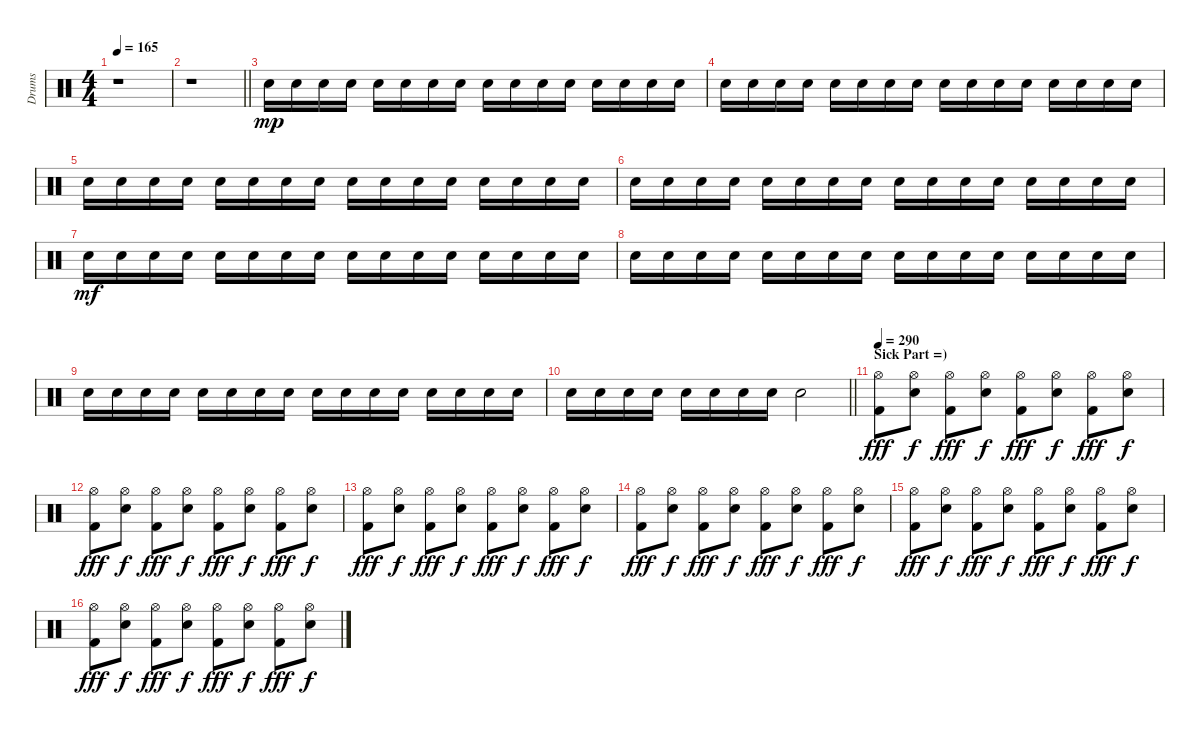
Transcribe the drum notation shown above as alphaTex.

\track ("Drums" "Drums") {instrument percussion}
\staff {score}
\articulation defaults
\ts (4 4)
\tempo 165
\clef neutral
\ks c
r.1{dy f} |
\barLineRight lightlight
r.1 |
"Snare (hit) 2".16{dy mp} "Snare (hit) 2".16 "Snare (hit) 2".16 "Snare (hit) 2".16 "Snare (hit) 2".16 "Snare (hit) 2".16 "Snare (hit) 2".16 "Snare (hit) 2".16 "Snare (hit) 2".16 "Snare (hit) 2".16 "Snare (hit) 2".16 "Snare (hit) 2".16 "Snare (hit) 2".16 "Snare (hit) 2".16 "Snare (hit) 2".16 "Snare (hit) 2".16 |
"Snare (hit) 2".16 "Snare (hit) 2".16 "Snare (hit) 2".16 "Snare (hit) 2".16 "Snare (hit) 2".16 "Snare (hit) 2".16 "Snare (hit) 2".16 "Snare (hit) 2".16 "Snare (hit) 2".16 "Snare (hit) 2".16 "Snare (hit) 2".16 "Snare (hit) 2".16 "Snare (hit) 2".16 "Snare (hit) 2".16 "Snare (hit) 2".16 "Snare (hit) 2".16 |
"Snare (hit) 2".16 "Snare (hit) 2".16 "Snare (hit) 2".16 "Snare (hit) 2".16 "Snare (hit) 2".16 "Snare (hit) 2".16 "Snare (hit) 2".16 "Snare (hit) 2".16 "Snare (hit) 2".16 "Snare (hit) 2".16 "Snare (hit) 2".16 "Snare (hit) 2".16 "Snare (hit) 2".16 "Snare (hit) 2".16 "Snare (hit) 2".16 "Snare (hit) 2".16 |
"Snare (hit) 2".16 "Snare (hit) 2".16 "Snare (hit) 2".16 "Snare (hit) 2".16 "Snare (hit) 2".16 "Snare (hit) 2".16 "Snare (hit) 2".16 "Snare (hit) 2".16 "Snare (hit) 2".16 "Snare (hit) 2".16 "Snare (hit) 2".16 "Snare (hit) 2".16 "Snare (hit) 2".16 "Snare (hit) 2".16 "Snare (hit) 2".16 "Snare (hit) 2".16 |
"Snare (hit) 2".16{dy mf} "Snare (hit) 2".16 "Snare (hit) 2".16 "Snare (hit) 2".16 "Snare (hit) 2".16 "Snare (hit) 2".16 "Snare (hit) 2".16 "Snare (hit) 2".16 "Snare (hit) 2".16 "Snare (hit) 2".16 "Snare (hit) 2".16 "Snare (hit) 2".16 "Snare (hit) 2".16 "Snare (hit) 2".16 "Snare (hit) 2".16 "Snare (hit) 2".16 |
"Snare (hit) 2".16 "Snare (hit) 2".16 "Snare (hit) 2".16 "Snare (hit) 2".16 "Snare (hit) 2".16 "Snare (hit) 2".16 "Snare (hit) 2".16 "Snare (hit) 2".16 "Snare (hit) 2".16 "Snare (hit) 2".16 "Snare (hit) 2".16 "Snare (hit) 2".16 "Snare (hit) 2".16 "Snare (hit) 2".16 "Snare (hit) 2".16 "Snare (hit) 2".16 |
"Snare (hit) 2".16 "Snare (hit) 2".16 "Snare (hit) 2".16 "Snare (hit) 2".16 "Snare (hit) 2".16 "Snare (hit) 2".16 "Snare (hit) 2".16 "Snare (hit) 2".16 "Snare (hit) 2".16 "Snare (hit) 2".16 "Snare (hit) 2".16 "Snare (hit) 2".16 "Snare (hit) 2".16 "Snare (hit) 2".16 "Snare (hit) 2".16 "Snare (hit) 2".16 |
\barLineRight lightlight "Snare (hit) 2".16 "Snare (hit) 2".16 "Snare (hit) 2".16 "Snare (hit) 2".16 "Snare (hit) 2".16 "Snare (hit) 2".16 "Snare (hit) 2".16 "Snare (hit) 2".16 "Snare (hit) 2".2
|
\section ("" "Sick Part =)")
\tempo 290
("Hi-Hat (open)" "Kick (hit) 2").8{dy fff} ("Hi-Hat (open)" "Snare (hit) 2").8{dy f} ("Hi-Hat (open)" "Kick (hit) 2").8{dy fff} ("Hi-Hat (open)" "Snare (hit) 2").8{dy f} ("Hi-Hat (open)" "Kick (hit) 2").8{dy fff} ("Hi-Hat (open)" "Snare (hit) 2").8{dy f} ("Hi-Hat (open)" "Kick (hit) 2").8{dy fff} ("Hi-Hat (open)" "Snare (hit) 2").8{dy f} |
("Hi-Hat (open)" "Kick (hit) 2").8{dy fff} ("Hi-Hat (open)" "Snare (hit) 2").8{dy f} ("Hi-Hat (open)" "Kick (hit) 2").8{dy fff} ("Hi-Hat (open)" "Snare (hit) 2").8{dy f} ("Hi-Hat (open)" "Kick (hit) 2").8{dy fff} ("Hi-Hat (open)" "Snare (hit) 2").8{dy f} ("Hi-Hat (open)" "Kick (hit) 2").8{dy fff} ("Hi-Hat (open)" "Snare (hit) 2").8{dy f} |
("Hi-Hat (open)" "Kick (hit) 2").8{dy fff} ("Hi-Hat (open)" "Snare (hit) 2").8{dy f} ("Hi-Hat (open)" "Kick (hit) 2").8{dy fff} ("Hi-Hat (open)" "Snare (hit) 2").8{dy f} ("Hi-Hat (open)" "Kick (hit) 2").8{dy fff} ("Hi-Hat (open)" "Snare (hit) 2").8{dy f} ("Hi-Hat (open)" "Kick (hit) 2").8{dy fff} ("Hi-Hat (open)" "Snare (hit) 2").8{dy f} |
("Hi-Hat (open)" "Kick (hit) 2").8{dy fff} ("Hi-Hat (open)" "Snare (hit) 2").8{dy f} ("Hi-Hat (open)" "Kick (hit) 2").8{dy fff} ("Hi-Hat (open)" "Snare (hit) 2").8{dy f} ("Hi-Hat (open)" "Kick (hit) 2").8{dy fff} ("Hi-Hat (open)" "Snare (hit) 2").8{dy f} ("Hi-Hat (open)" "Kick (hit) 2").8{dy fff} ("Hi-Hat (open)" "Snare (hit) 2").8{dy f} |
("Hi-Hat (open)" "Kick (hit) 2").8{dy fff} ("Hi-Hat (open)" "Snare (hit) 2").8{dy f} ("Hi-Hat (open)" "Kick (hit) 2").8{dy fff} ("Hi-Hat (open)" "Snare (hit) 2").8{dy f} ("Hi-Hat (open)" "Kick (hit) 2").8{dy fff} ("Hi-Hat (open)" "Snare (hit) 2").8{dy f} ("Hi-Hat (open)" "Kick (hit) 2").8{dy fff} ("Hi-Hat (open)" "Snare (hit) 2").8{dy f} |
("Hi-Hat (open)" "Kick (hit) 2").8{dy fff} ("Hi-Hat (open)" "Snare (hit) 2").8{dy f} ("Hi-Hat (open)" "Kick (hit) 2").8{dy fff} ("Hi-Hat (open)" "Snare (hit) 2").8{dy f} ("Hi-Hat (open)" "Kick (hit) 2").8{dy fff} ("Hi-Hat (open)" "Snare (hit) 2").8{dy f} ("Hi-Hat (open)" "Kick (hit) 2").8{dy fff} ("Hi-Hat (open)" "Snare (hit) 2").8{dy f}
